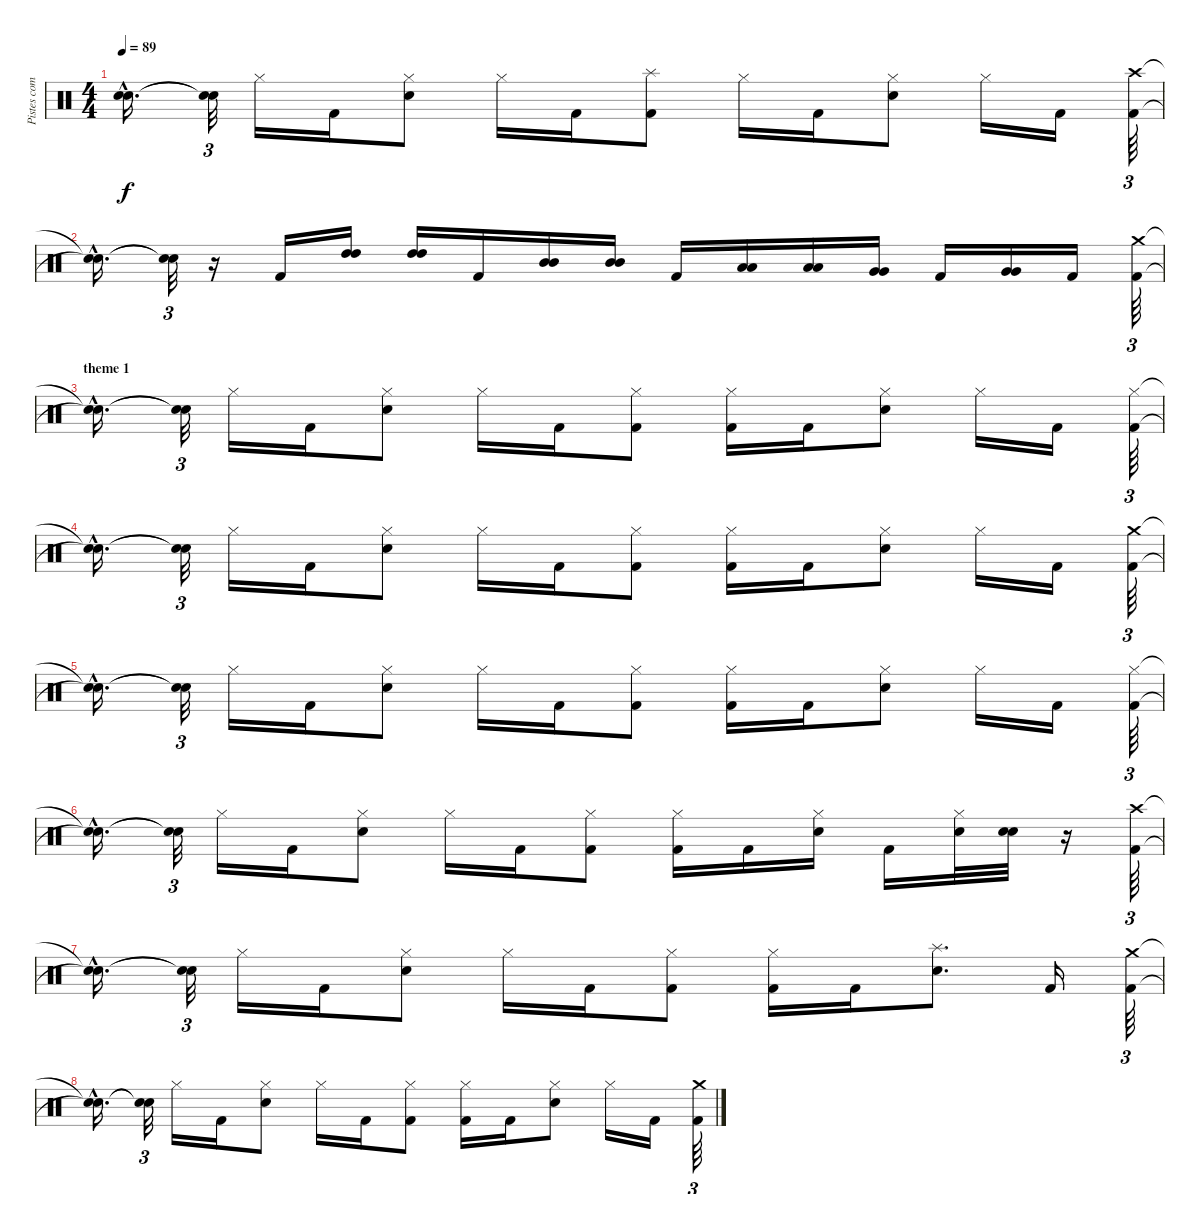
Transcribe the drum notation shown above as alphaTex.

\track ("Pistes combinées" "Pistes com") {instrument percussion}
\staff {score}
\articulation defaults
\ts (4 4)
\tempo 89
\clef neutral
\ks c
("Snare (hit)"{hac t} "Snare (hit)"{hac t}).16{d dy f} ("Snare (hit)"{t} "Snare (hit)"{t}).32{tu (3 2)} "Hi-Hat (closed)".16 "Kick (hit) 2".16 ("Hi-Hat (closed)" "Electric Snare (hit)").8 "Hi-Hat (closed)".16 "Kick (hit) 2".16 ("Splash (hit)" "Kick (hit) 2").8 "Hi-Hat (closed)".16 "Kick (hit) 2".16 ("Hi-Hat (closed)" "Electric Snare (hit)").8 "Hi-Hat (closed)".16 "Kick (hit) 2".16 ("Crash high (hit)" "Kick (hit) 2").64{tu (3 2)} |
("Snare (hit)"{hac t} "Snare (hit)"{hac t}).16{d} ("Snare (hit)"{t} "Snare (hit)"{t}).32{tu (3 2)} r.16 "Kick (hit) 2".16 ("High Tom (hit)" "High Tom (hit)").16 ("High Tom (hit)" "High Tom (hit)").16 "Kick (hit) 2".16 ("Mid Tom (hit)" "Mid Tom (hit)").16 ("Mid Tom (hit)" "Mid Tom (hit)").16 "Kick (hit) 2".16 ("Low Tom (hit)" "Low Tom (hit)").16 ("Low Tom (hit)" "Low Tom (hit)").16 ("Very Low Tom (hit)" "Very Low Tom (hit)").16 "Kick (hit) 2".16 ("Very Low Tom (hit)" "Very Low Tom (hit)").16 "Kick (hit) 2".16 ("Crash medium (hit)" "Kick (hit) 2").64{tu (3 2)} |
\section ("" "theme 1")
("Snare (hit)"{hac t} "Snare (hit)"{hac t}).16{d} ("Snare (hit)"{t} "Snare (hit)"{t}).32{tu (3 2)} "Hi-Hat (closed)".16 "Kick (hit) 2".16 ("Hi-Hat (closed)" "Electric Snare (hit)").8 "Hi-Hat (closed)".16 "Kick (hit) 2".16 ("Hi-Hat (closed)" "Kick (hit) 2").8 ("Hi-Hat (closed)" "Kick (hit) 2").16 "Kick (hit) 2".16 ("Hi-Hat (closed)" "Electric Snare (hit)").8 "Hi-Hat (closed)".16 "Kick (hit) 2".16 ("Hi-Hat (closed)" "Kick (hit) 2").64{tu (3 2)} |
("Snare (hit)"{hac t} "Snare (hit)"{hac t}).16{d} ("Snare (hit)"{t} "Snare (hit)"{t}).32{tu (3 2)} "Hi-Hat (closed)".16 "Kick (hit) 2".16 ("Hi-Hat (closed)" "Electric Snare (hit)").8 "Hi-Hat (closed)".16 "Kick (hit) 2".16 ("Hi-Hat (closed)" "Kick (hit) 2").8 ("Hi-Hat (closed)" "Kick (hit) 2").16 "Kick (hit) 2".16 ("Hi-Hat (closed)" "Electric Snare (hit)").8 "Hi-Hat (closed)".16 "Kick (hit) 2".16 ("Crash medium (hit)" "Kick (hit) 2").64{tu (3 2)} |
("Snare (hit)"{hac t} "Snare (hit)"{hac t}).16{d} ("Snare (hit)"{t} "Snare (hit)"{t}).32{tu (3 2)} "Hi-Hat (closed)".16 "Kick (hit) 2".16 ("Hi-Hat (closed)" "Electric Snare (hit)").8 "Hi-Hat (closed)".16 "Kick (hit) 2".16 ("Hi-Hat (closed)" "Kick (hit) 2").8 ("Hi-Hat (closed)" "Kick (hit) 2").16 "Kick (hit) 2".16 ("Hi-Hat (closed)" "Electric Snare (hit)").8 "Hi-Hat (closed)".16 "Kick (hit) 2".16 ("Hi-Hat (closed)" "Kick (hit) 2").64{tu (3 2)} |
("Snare (hit)"{hac t} "Snare (hit)"{hac t}).16{d} ("Snare (hit)"{t} "Snare (hit)"{t}).32{tu (3 2)} "Hi-Hat (closed)".16 "Kick (hit) 2".16 ("Hi-Hat (closed)" "Electric Snare (hit)").8 "Hi-Hat (closed)".16 "Kick (hit) 2".16 ("Hi-Hat (closed)" "Kick (hit) 2").8 ("Hi-Hat (closed)" "Kick (hit) 2").16 "Kick (hit) 2".16 ("Hi-Hat (closed)" "Electric Snare (hit)").16 "Kick (hit) 2".16 ("Hi-Hat (closed)" "Electric Snare (hit)").32 ("Electric Snare (hit)" "Electric Snare (hit)").32 r.16 ("Crash high (hit)" "Kick (hit) 2").64{tu (3 2)} |
("Snare (hit)"{hac t} "Snare (hit)"{hac t}).16{d} ("Snare (hit)"{t} "Snare (hit)"{t}).32{tu (3 2)} "Hi-Hat (closed)".16 "Kick (hit) 2".16 ("Hi-Hat (closed)" "Electric Snare (hit)").8 "Hi-Hat (closed)".16 "Kick (hit) 2".16 ("Hi-Hat (closed)" "Kick (hit) 2").8 ("Hi-Hat (closed)" "Kick (hit) 2").16 "Kick (hit) 2".16 ("Splash (hit)" "Electric Snare (hit)").8{d} "Kick (hit) 2".16 ("Crash medium (hit)" "Kick (hit) 2").64{tu (3 2)} |
("Snare (hit)"{hac t} "Snare (hit)"{hac t}).16{d} ("Snare (hit)"{t} "Snare (hit)"{t}).32{tu (3 2)} "Hi-Hat (closed)".16 "Kick (hit) 2".16 ("Hi-Hat (closed)" "Electric Snare (hit)").8 "Hi-Hat (closed)".16 "Kick (hit) 2".16 ("Hi-Hat (closed)" "Kick (hit) 2").8 ("Hi-Hat (closed)" "Kick (hit) 2").16 "Kick (hit) 2".16 ("Hi-Hat (closed)" "Electric Snare (hit)").8 "Hi-Hat (closed)".16 "Kick (hit) 2".16 ("Crash medium (hit)" "Kick (hit) 2").64{tu (3 2)}
